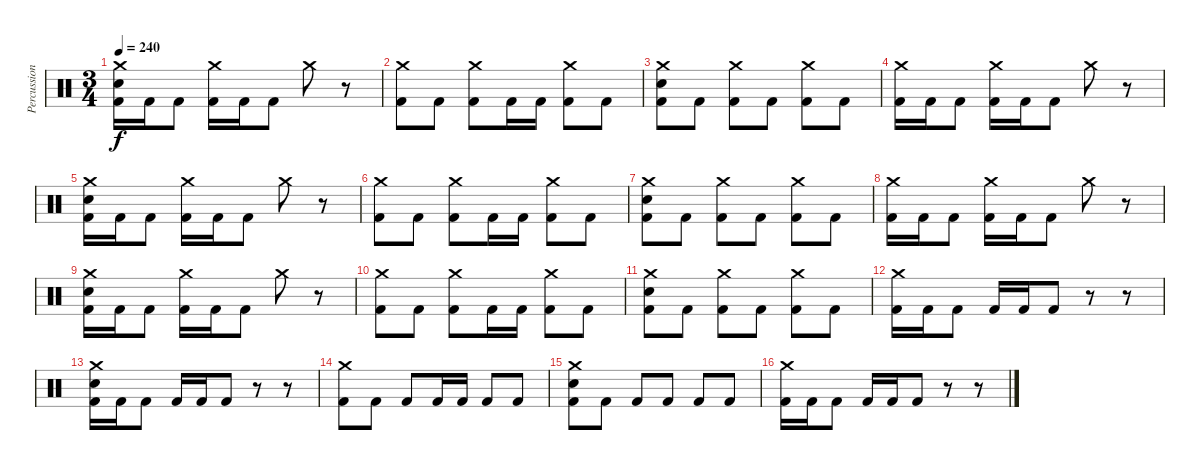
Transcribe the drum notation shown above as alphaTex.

\track ("Percussion" "Percussion") {instrument percussion}
\staff {score}
\articulation defaults
\ts (3 4)
\tempo 240
\clef neutral
\ks c
("Crash medium (hit)" "Electric Snare (hit)" "Kick (hit) 2").16{dy f} "Kick (hit) 2".16 "Kick (hit) 2".8 ("Crash medium (hit)" "Kick (hit) 2").16 "Kick (hit) 2".16 "Kick (hit) 2".8 "Crash medium (hit)".8 r.8 |
("Crash medium (hit)" "Kick (hit) 2").8 "Kick (hit) 2".8 ("Crash medium (hit)" "Kick (hit) 2").8 "Kick (hit) 2".16 "Kick (hit) 2".16 ("Crash medium (hit)" "Kick (hit) 2").8 "Kick (hit) 2".8 |
("Crash medium (hit)" "Electric Snare (hit)" "Kick (hit) 2").8 "Kick (hit) 2".8 ("Crash medium (hit)" "Kick (hit) 2").8 "Kick (hit) 2".8 ("Crash medium (hit)" "Kick (hit) 2").8 "Kick (hit) 2".8 |
("Crash medium (hit)" "Kick (hit) 2").16 "Kick (hit) 2".16 "Kick (hit) 2".8 ("Crash medium (hit)" "Kick (hit) 2").16 "Kick (hit) 2".16 "Kick (hit) 2".8 "Crash medium (hit)".8 r.8 |
("Crash medium (hit)" "Electric Snare (hit)" "Kick (hit) 2").16 "Kick (hit) 2".16 "Kick (hit) 2".8 ("Crash medium (hit)" "Kick (hit) 2").16 "Kick (hit) 2".16 "Kick (hit) 2".8 "Crash medium (hit)".8 r.8 |
("Crash medium (hit)" "Kick (hit) 2").8 "Kick (hit) 2".8 ("Crash medium (hit)" "Kick (hit) 2").8 "Kick (hit) 2".16 "Kick (hit) 2".16 ("Crash medium (hit)" "Kick (hit) 2").8 "Kick (hit) 2".8 |
("Crash medium (hit)" "Electric Snare (hit)" "Kick (hit) 2").8 "Kick (hit) 2".8 ("Crash medium (hit)" "Kick (hit) 2").8 "Kick (hit) 2".8 ("Crash medium (hit)" "Kick (hit) 2").8 "Kick (hit) 2".8 |
("Crash medium (hit)" "Kick (hit) 2").16 "Kick (hit) 2".16 "Kick (hit) 2".8 ("Crash medium (hit)" "Kick (hit) 2").16 "Kick (hit) 2".16 "Kick (hit) 2".8 "Crash medium (hit)".8 r.8 |
("Crash medium (hit)" "Electric Snare (hit)" "Kick (hit) 2").16 "Kick (hit) 2".16 "Kick (hit) 2".8 ("Crash medium (hit)" "Kick (hit) 2").16 "Kick (hit) 2".16 "Kick (hit) 2".8 "Crash medium (hit)".8 r.8 |
("Crash medium (hit)" "Kick (hit) 2").8 "Kick (hit) 2".8 ("Crash medium (hit)" "Kick (hit) 2").8 "Kick (hit) 2".16 "Kick (hit) 2".16 ("Crash medium (hit)" "Kick (hit) 2").8 "Kick (hit) 2".8 |
("Crash medium (hit)" "Electric Snare (hit)" "Kick (hit) 2").8 "Kick (hit) 2".8 ("Crash medium (hit)" "Kick (hit) 2").8 "Kick (hit) 2".8 ("Crash medium (hit)" "Kick (hit) 2").8 "Kick (hit) 2".8 |
("Crash medium (hit)" "Kick (hit) 2").16 "Kick (hit) 2".16 "Kick (hit) 2".8 "Kick (hit) 2".16 "Kick (hit) 2".16 "Kick (hit) 2".8 r.8 r.8 |
("Crash medium (hit)" "Electric Snare (hit)" "Kick (hit) 2").16 "Kick (hit) 2".16 "Kick (hit) 2".8 "Kick (hit) 2".16 "Kick (hit) 2".16 "Kick (hit) 2".8 r.8 r.8 |
("Crash medium (hit)" "Kick (hit) 2").8 "Kick (hit) 2".8 "Kick (hit) 2".8 "Kick (hit) 2".16 "Kick (hit) 2".16 "Kick (hit) 2".8 "Kick (hit) 2".8 |
("Crash medium (hit)" "Electric Snare (hit)" "Kick (hit) 2").8 "Kick (hit) 2".8 "Kick (hit) 2".8 "Kick (hit) 2".8 "Kick (hit) 2".8 "Kick (hit) 2".8 |
("Crash medium (hit)" "Kick (hit) 2").16 "Kick (hit) 2".16 "Kick (hit) 2".8 "Kick (hit) 2".16 "Kick (hit) 2".16 "Kick (hit) 2".8 r.8 r.8
